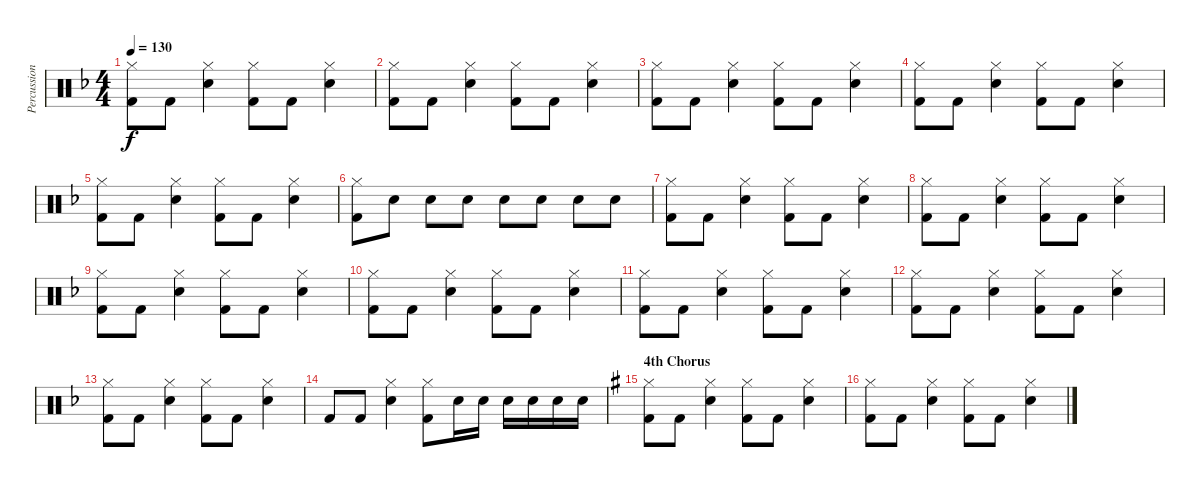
\track ("Percussion" "Percussion") {instrument percussion}
\staff {score}
\articulation defaults
\ts (4 4)
\tempo 130
\clef neutral
\ks dminor
("Hi-Hat (closed)" "Kick (hit) 2").8{dy f} "Kick (hit) 2".8 ("Hi-Hat (closed)" "Snare (hit) 2").4 ("Hi-Hat (closed)" "Kick (hit) 2").8 "Kick (hit) 2".8 ("Hi-Hat (closed)" "Snare (hit) 2").4 |
("Hi-Hat (closed)" "Kick (hit) 2").8 "Kick (hit) 2".8 ("Hi-Hat (closed)" "Snare (hit) 2").4 ("Hi-Hat (closed)" "Kick (hit) 2").8 "Kick (hit) 2".8 ("Hi-Hat (closed)" "Snare (hit) 2").4 |
("Hi-Hat (closed)" "Kick (hit) 2").8 "Kick (hit) 2".8 ("Hi-Hat (closed)" "Snare (hit) 2").4 ("Hi-Hat (closed)" "Kick (hit) 2").8 "Kick (hit) 2".8 ("Hi-Hat (closed)" "Snare (hit) 2").4 |
("Hi-Hat (closed)" "Kick (hit) 2").8 "Kick (hit) 2".8 ("Hi-Hat (closed)" "Snare (hit) 2").4 ("Hi-Hat (closed)" "Kick (hit) 2").8 "Kick (hit) 2".8 ("Hi-Hat (closed)" "Snare (hit) 2").4 |
("Hi-Hat (closed)" "Kick (hit) 2").8 "Kick (hit) 2".8 ("Hi-Hat (closed)" "Snare (hit) 2").4 ("Hi-Hat (closed)" "Kick (hit) 2").8 "Kick (hit) 2".8 ("Hi-Hat (closed)" "Snare (hit) 2").4 |
("Hi-Hat (closed)" "Kick (hit) 2").8 "Snare (hit) 2".8 "Snare (hit) 2".8 "Snare (hit) 2".8 "Snare (hit) 2".8 "Snare (hit) 2".8 "Snare (hit) 2".8 "Snare (hit) 2".8 |
("Hi-Hat (closed)" "Kick (hit) 2").8 "Kick (hit) 2".8 ("Hi-Hat (closed)" "Snare (hit) 2").4 ("Hi-Hat (closed)" "Kick (hit) 2").8 "Kick (hit) 2".8 ("Hi-Hat (closed)" "Snare (hit) 2").4 |
("Hi-Hat (closed)" "Kick (hit) 2").8 "Kick (hit) 2".8 ("Hi-Hat (closed)" "Snare (hit) 2").4 ("Hi-Hat (closed)" "Kick (hit) 2").8 "Kick (hit) 2".8 ("Hi-Hat (closed)" "Snare (hit) 2").4 |
("Hi-Hat (closed)" "Kick (hit) 2").8 "Kick (hit) 2".8 ("Hi-Hat (closed)" "Snare (hit) 2").4 ("Hi-Hat (closed)" "Kick (hit) 2").8 "Kick (hit) 2".8 ("Hi-Hat (closed)" "Snare (hit) 2").4 |
("Hi-Hat (closed)" "Kick (hit) 2").8 "Kick (hit) 2".8 ("Hi-Hat (closed)" "Snare (hit) 2").4 ("Hi-Hat (closed)" "Kick (hit) 2").8 "Kick (hit) 2".8 ("Hi-Hat (closed)" "Snare (hit) 2").4 |
("Hi-Hat (closed)" "Kick (hit) 2").8 "Kick (hit) 2".8 ("Hi-Hat (closed)" "Snare (hit) 2").4 ("Hi-Hat (closed)" "Kick (hit) 2").8 "Kick (hit) 2".8 ("Hi-Hat (closed)" "Snare (hit) 2").4 |
("Hi-Hat (closed)" "Kick (hit) 2").8 "Kick (hit) 2".8 ("Hi-Hat (closed)" "Snare (hit) 2").4 ("Hi-Hat (closed)" "Kick (hit) 2").8 "Kick (hit) 2".8 ("Hi-Hat (closed)" "Snare (hit) 2").4 |
("Hi-Hat (closed)" "Kick (hit) 2").8 "Kick (hit) 2".8 ("Hi-Hat (closed)" "Snare (hit) 2").4 ("Hi-Hat (closed)" "Kick (hit) 2").8 "Kick (hit) 2".8 ("Hi-Hat (closed)" "Snare (hit) 2").4 |
"Kick (hit) 2".8 "Kick (hit) 2".8 ("Hi-Hat (closed)" "Snare (hit) 2").4 ("Hi-Hat (closed)" "Kick (hit) 2").8 "Snare (hit) 2".16 "Snare (hit) 2".16 "Snare (hit) 2".16 "Snare (hit) 2".16 "Snare (hit) 2".16 "Snare (hit) 2".16 |
\section ("" "4th Chorus")
\ks eminor
("Hi-Hat (closed)" "Kick (hit) 2").8 "Kick (hit) 2".8 ("Hi-Hat (closed)" "Snare (hit) 2").4 ("Hi-Hat (closed)" "Kick (hit) 2").8 "Kick (hit) 2".8 ("Hi-Hat (closed)" "Snare (hit) 2").4 |
("Hi-Hat (closed)" "Kick (hit) 2").8 "Kick (hit) 2".8 ("Hi-Hat (closed)" "Snare (hit) 2").4 ("Hi-Hat (closed)" "Kick (hit) 2").8 "Kick (hit) 2".8 ("Hi-Hat (closed)" "Snare (hit) 2").4
